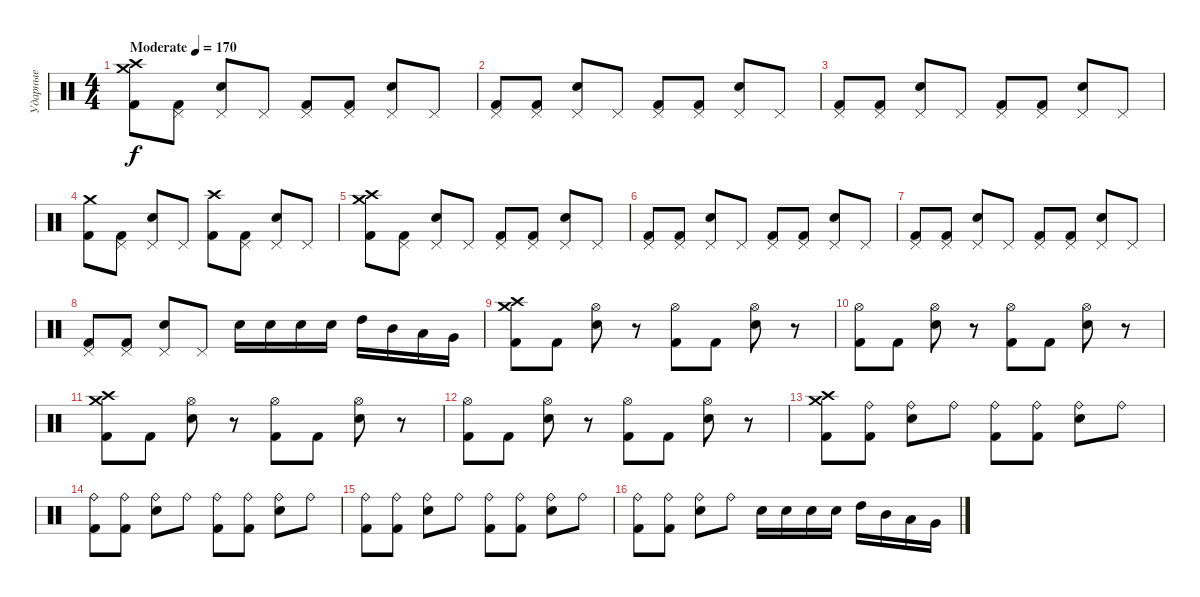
\track ("Ударные" "Ударные") {instrument percussion}
\staff {score}
\articulation defaults
\ts (4 4)
\tempo (170 "Moderate")
\clef neutral
\ks c
("Crash medium (hit)" "Crash high (hit)" "Kick (hit) 2").8{dy f} ("Pedal Hi-Hat (hit)" "Kick (hit) 2").8 ("Pedal Hi-Hat (hit)" "Electric Snare (hit)").8 "Pedal Hi-Hat (hit)".8 ("Pedal Hi-Hat (hit)" "Kick (hit) 2").8 ("Pedal Hi-Hat (hit)" "Kick (hit) 2").8 ("Pedal Hi-Hat (hit)" "Electric Snare (hit)").8 "Pedal Hi-Hat (hit)".8 |
("Pedal Hi-Hat (hit)" "Kick (hit) 2").8 ("Pedal Hi-Hat (hit)" "Kick (hit) 2").8 ("Pedal Hi-Hat (hit)" "Electric Snare (hit)").8 "Pedal Hi-Hat (hit)".8 ("Pedal Hi-Hat (hit)" "Kick (hit) 2").8 ("Pedal Hi-Hat (hit)" "Kick (hit) 2").8 ("Pedal Hi-Hat (hit)" "Electric Snare (hit)").8 "Pedal Hi-Hat (hit)".8 |
("Pedal Hi-Hat (hit)" "Kick (hit) 2").8 ("Pedal Hi-Hat (hit)" "Kick (hit) 2").8 ("Pedal Hi-Hat (hit)" "Electric Snare (hit)").8 "Pedal Hi-Hat (hit)".8 ("Pedal Hi-Hat (hit)" "Kick (hit) 2").8 ("Pedal Hi-Hat (hit)" "Kick (hit) 2").8 ("Pedal Hi-Hat (hit)" "Electric Snare (hit)").8 "Pedal Hi-Hat (hit)".8 |
("Crash medium (hit)" "Kick (hit) 2").8 ("Pedal Hi-Hat (hit)" "Kick (hit) 2").8 ("Pedal Hi-Hat (hit)" "Electric Snare (hit)").8 "Pedal Hi-Hat (hit)".8 ("Crash high (hit)" "Kick (hit) 2").8 ("Pedal Hi-Hat (hit)" "Kick (hit) 2").8 ("Pedal Hi-Hat (hit)" "Electric Snare (hit)").8 "Pedal Hi-Hat (hit)".8 |
("Crash medium (hit)" "Crash high (hit)" "Kick (hit) 2").8 ("Pedal Hi-Hat (hit)" "Kick (hit) 2").8 ("Pedal Hi-Hat (hit)" "Electric Snare (hit)").8 "Pedal Hi-Hat (hit)".8 ("Pedal Hi-Hat (hit)" "Kick (hit) 2").8 ("Pedal Hi-Hat (hit)" "Kick (hit) 2").8 ("Pedal Hi-Hat (hit)" "Electric Snare (hit)").8 "Pedal Hi-Hat (hit)".8 |
("Pedal Hi-Hat (hit)" "Kick (hit) 2").8 ("Pedal Hi-Hat (hit)" "Kick (hit) 2").8 ("Pedal Hi-Hat (hit)" "Electric Snare (hit)").8 "Pedal Hi-Hat (hit)".8 ("Pedal Hi-Hat (hit)" "Kick (hit) 2").8 ("Pedal Hi-Hat (hit)" "Kick (hit) 2").8 ("Pedal Hi-Hat (hit)" "Electric Snare (hit)").8 "Pedal Hi-Hat (hit)".8 |
("Pedal Hi-Hat (hit)" "Kick (hit) 2").8 ("Pedal Hi-Hat (hit)" "Kick (hit) 2").8 ("Pedal Hi-Hat (hit)" "Electric Snare (hit)").8 "Pedal Hi-Hat (hit)".8 ("Pedal Hi-Hat (hit)" "Kick (hit) 2").8 ("Pedal Hi-Hat (hit)" "Kick (hit) 2").8 ("Pedal Hi-Hat (hit)" "Electric Snare (hit)").8 "Pedal Hi-Hat (hit)".8 |
("Pedal Hi-Hat (hit)" "Kick (hit) 2").8 ("Pedal Hi-Hat (hit)" "Kick (hit) 2").8 ("Pedal Hi-Hat (hit)" "Electric Snare (hit)").8 "Pedal Hi-Hat (hit)".8 "Electric Snare (hit)".16 "Electric Snare (hit)".16 "Electric Snare (hit)".16 "Electric Snare (hit)".16 "High Tom (hit)".16 "Mid Tom (hit)".16 "Low Tom (hit)".16 "Very Low Tom (hit)".16 |
("Crash medium (hit)" "Crash high (hit)" "Kick (hit) 2").8 "Kick (hit) 2".8 ("Hi-Hat (open)" "Electric Snare (hit)").8 r.8 ("Hi-Hat (open)" "Kick (hit) 2").8 "Kick (hit) 2".8 ("Hi-Hat (open)" "Electric Snare (hit)").8 r.8 |
("Hi-Hat (open)" "Kick (hit) 2").8 "Kick (hit) 2".8 ("Hi-Hat (open)" "Electric Snare (hit)").8 r.8 ("Hi-Hat (open)" "Kick (hit) 2").8 "Kick (hit) 2".8 ("Hi-Hat (open)" "Electric Snare (hit)").8 r.8 |
("Crash medium (hit)" "Crash high (hit)" "Kick (hit) 2").8 "Kick (hit) 2".8 ("Hi-Hat (open)" "Electric Snare (hit)").8 r.8 ("Hi-Hat (open)" "Kick (hit) 2").8 "Kick (hit) 2".8 ("Hi-Hat (open)" "Electric Snare (hit)").8 r.8 |
("Hi-Hat (open)" "Kick (hit) 2").8 "Kick (hit) 2".8 ("Hi-Hat (open)" "Electric Snare (hit)").8 r.8 ("Hi-Hat (open)" "Kick (hit) 2").8 "Kick (hit) 2".8 ("Hi-Hat (open)" "Electric Snare (hit)").8 r.8 |
("Crash medium (hit)" "Crash high (hit)" "Kick (hit) 2").8 ("Ride (bell)" "Kick (hit) 2").8 ("Ride (bell)" "Electric Snare (hit)").8 "Ride (bell)".8 ("Ride (bell)" "Kick (hit) 2").8 ("Ride (bell)" "Kick (hit) 2").8 ("Ride (bell)" "Electric Snare (hit)").8 "Ride (bell)".8 |
("Ride (bell)" "Kick (hit) 2").8 ("Ride (bell)" "Kick (hit) 2").8 ("Ride (bell)" "Electric Snare (hit)").8 "Ride (bell)".8 ("Ride (bell)" "Kick (hit) 2").8 ("Ride (bell)" "Kick (hit) 2").8 ("Ride (bell)" "Electric Snare (hit)").8 "Ride (bell)".8 |
("Ride (bell)" "Kick (hit) 2").8 ("Ride (bell)" "Kick (hit) 2").8 ("Ride (bell)" "Electric Snare (hit)").8 "Ride (bell)".8 ("Ride (bell)" "Kick (hit) 2").8 ("Ride (bell)" "Kick (hit) 2").8 ("Ride (bell)" "Electric Snare (hit)").8 "Ride (bell)".8 |
("Ride (bell)" "Kick (hit) 2").8 ("Ride (bell)" "Kick (hit) 2").8 ("Ride (bell)" "Electric Snare (hit)").8 "Ride (bell)".8 "Electric Snare (hit)".16 "Electric Snare (hit)".16 "Electric Snare (hit)".16 "Electric Snare (hit)".16 "High Tom (hit)".16 "Mid Tom (hit)".16 "Low Tom (hit)".16 "Very Low Tom (hit)".16
